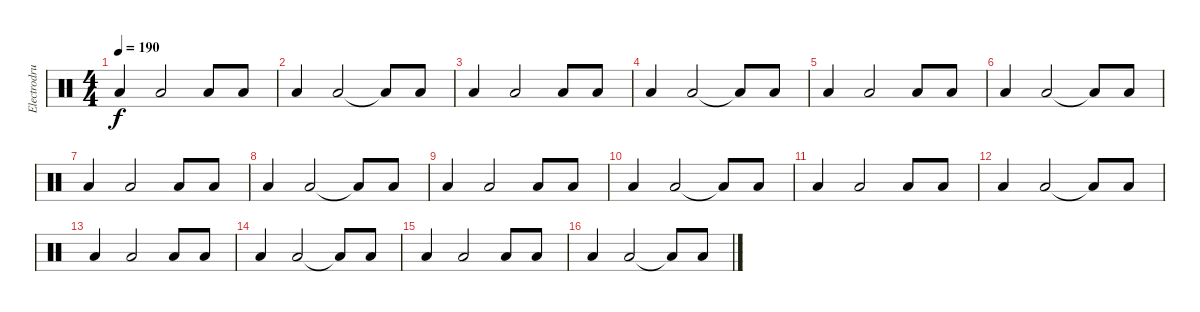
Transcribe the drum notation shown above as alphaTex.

\track ("Electrodrums3" "Electrodru") {instrument percussion}
\staff {score}
\articulation defaults
\ts (4 4)
\tempo 190
\clef neutral
\ks c "Low Floor Tom (hit)".4{dy f} "Low Floor Tom (hit)".2 "Low Floor Tom (hit)".8 "Low Floor Tom (hit)".8
|
"Low Floor Tom (hit)".4 "Low Floor Tom (hit)".2 "Low Floor Tom (hit)"{t}.8 "Low Floor Tom (hit)".8 |
"Low Floor Tom (hit)".4 "Low Floor Tom (hit)".2 "Low Floor Tom (hit)".8 "Low Floor Tom (hit)".8 |
"Low Floor Tom (hit)".4 "Low Floor Tom (hit)".2 "Low Floor Tom (hit)"{t}.8 "Low Floor Tom (hit)".8 |
"Low Floor Tom (hit)".4 "Low Floor Tom (hit)".2 "Low Floor Tom (hit)".8 "Low Floor Tom (hit)".8 |
"Low Floor Tom (hit)".4 "Low Floor Tom (hit)".2 "Low Floor Tom (hit)"{t}.8 "Low Floor Tom (hit)".8 |
"Low Floor Tom (hit)".4 "Low Floor Tom (hit)".2 "Low Floor Tom (hit)".8 "Low Floor Tom (hit)".8 |
"Low Floor Tom (hit)".4 "Low Floor Tom (hit)".2 "Low Floor Tom (hit)"{t}.8 "Low Floor Tom (hit)".8 |
"Low Floor Tom (hit)".4 "Low Floor Tom (hit)".2 "Low Floor Tom (hit)".8 "Low Floor Tom (hit)".8 |
"Low Floor Tom (hit)".4 "Low Floor Tom (hit)".2 "Low Floor Tom (hit)"{t}.8 "Low Floor Tom (hit)".8 |
"Low Floor Tom (hit)".4 "Low Floor Tom (hit)".2 "Low Floor Tom (hit)".8 "Low Floor Tom (hit)".8 |
"Low Floor Tom (hit)".4 "Low Floor Tom (hit)".2 "Low Floor Tom (hit)"{t}.8 "Low Floor Tom (hit)".8 |
"Low Floor Tom (hit)".4 "Low Floor Tom (hit)".2 "Low Floor Tom (hit)".8 "Low Floor Tom (hit)".8 |
"Low Floor Tom (hit)".4 "Low Floor Tom (hit)".2 "Low Floor Tom (hit)"{t}.8 "Low Floor Tom (hit)".8 |
"Low Floor Tom (hit)".4 "Low Floor Tom (hit)".2 "Low Floor Tom (hit)".8 "Low Floor Tom (hit)".8 |
"Low Floor Tom (hit)".4 "Low Floor Tom (hit)".2 "Low Floor Tom (hit)"{t}.8 "Low Floor Tom (hit)".8
